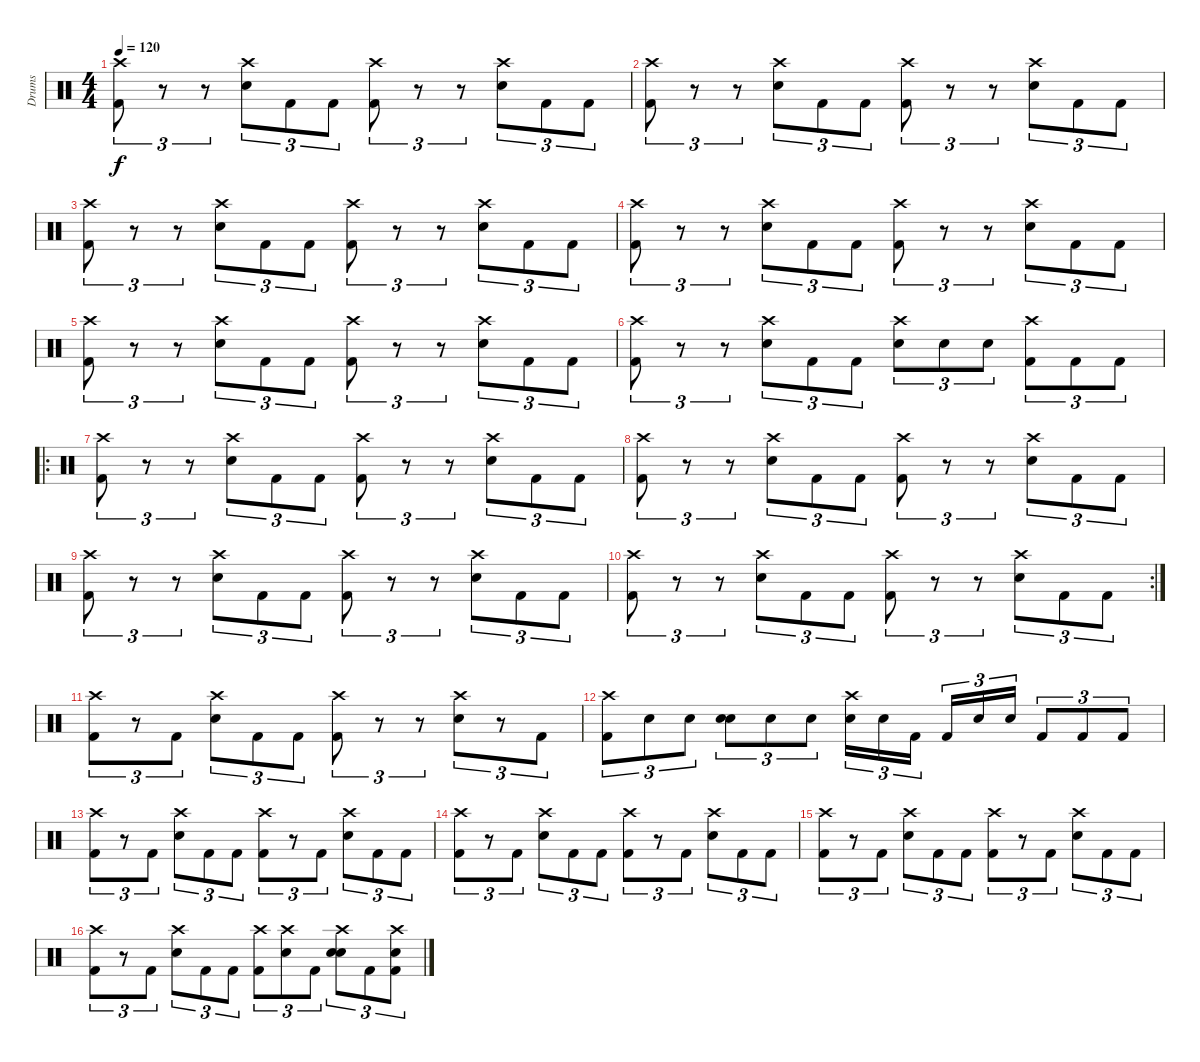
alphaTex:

\track ("Drums" "Drums") {instrument percussion}
\staff {score}
\articulation defaults
\ts (4 4)
\tempo 120
\clef neutral
\ks c
("Kick (hit) 2" "Crash high (hit)").8{tu (3 2) dy f} r.8{tu (3 2)} r.8{tu (3 2)} ("Electric Snare (hit)" "Crash high (hit)").8{tu (3 2)} "Kick (hit) 2".8{tu (3 2)} "Kick (hit) 2".8{tu (3 2)} ("Kick (hit) 2" "Crash high (hit)").8{tu (3 2)} r.8{tu (3 2)} r.8{tu (3 2)} ("Electric Snare (hit)" "Crash high (hit)").8{tu (3 2)} "Kick (hit) 2".8{tu (3 2)} "Kick (hit) 2".8{tu (3 2)} |
("Kick (hit) 2" "Crash high (hit)").8{tu (3 2)} r.8{tu (3 2)} r.8{tu (3 2)} ("Electric Snare (hit)" "Crash high (hit)").8{tu (3 2)} "Kick (hit) 2".8{tu (3 2)} "Kick (hit) 2".8{tu (3 2)} ("Kick (hit) 2" "Crash high (hit)").8{tu (3 2)} r.8{tu (3 2)} r.8{tu (3 2)} ("Electric Snare (hit)" "Crash high (hit)").8{tu (3 2)} "Kick (hit) 2".8{tu (3 2)} "Kick (hit) 2".8{tu (3 2)} |
("Kick (hit) 2" "Crash high (hit)").8{tu (3 2)} r.8{tu (3 2)} r.8{tu (3 2)} ("Electric Snare (hit)" "Crash high (hit)").8{tu (3 2)} "Kick (hit) 2".8{tu (3 2)} "Kick (hit) 2".8{tu (3 2)} ("Kick (hit) 2" "Crash high (hit)").8{tu (3 2)} r.8{tu (3 2)} r.8{tu (3 2)} ("Electric Snare (hit)" "Crash high (hit)").8{tu (3 2)} "Kick (hit) 2".8{tu (3 2)} "Kick (hit) 2".8{tu (3 2)} |
("Kick (hit) 2" "Crash high (hit)").8{tu (3 2)} r.8{tu (3 2)} r.8{tu (3 2)} ("Electric Snare (hit)" "Crash high (hit)").8{tu (3 2)} "Kick (hit) 2".8{tu (3 2)} "Kick (hit) 2".8{tu (3 2)} ("Kick (hit) 2" "Crash high (hit)").8{tu (3 2)} r.8{tu (3 2)} r.8{tu (3 2)} ("Electric Snare (hit)" "Crash high (hit)").8{tu (3 2)} "Kick (hit) 2".8{tu (3 2)} "Kick (hit) 2".8{tu (3 2)} |
("Kick (hit) 2" "Crash high (hit)").8{tu (3 2)} r.8{tu (3 2)} r.8{tu (3 2)} ("Electric Snare (hit)" "Crash high (hit)").8{tu (3 2)} "Kick (hit) 2".8{tu (3 2)} "Kick (hit) 2".8{tu (3 2)} ("Kick (hit) 2" "Crash high (hit)").8{tu (3 2)} r.8{tu (3 2)} r.8{tu (3 2)} ("Electric Snare (hit)" "Crash high (hit)").8{tu (3 2)} "Kick (hit) 2".8{tu (3 2)} "Kick (hit) 2".8{tu (3 2)} |
("Kick (hit) 2" "Crash high (hit)").8{tu (3 2)} r.8{tu (3 2)} r.8{tu (3 2)} ("Electric Snare (hit)" "Crash high (hit)").8{tu (3 2)} "Kick (hit) 2".8{tu (3 2)} "Kick (hit) 2".8{tu (3 2)} ("Electric Snare (hit)" "Crash high (hit)").8{tu (3 2)} "Electric Snare (hit)".8{tu (3 2)} "Electric Snare (hit)".8{tu (3 2)} ("Kick (hit) 2" "Crash high (hit)").8{tu (3 2)} "Kick (hit) 2".8{tu (3 2)} "Kick (hit) 2".8{tu (3 2)} |
\ro
("Kick (hit) 2" "Crash high (hit)").8{tu (3 2)} r.8{tu (3 2)} r.8{tu (3 2)} ("Electric Snare (hit)" "Crash high (hit)").8{tu (3 2)} "Kick (hit) 2".8{tu (3 2)} "Kick (hit) 2".8{tu (3 2)} ("Kick (hit) 2" "Crash high (hit)").8{tu (3 2)} r.8{tu (3 2)} r.8{tu (3 2)} ("Electric Snare (hit)" "Crash high (hit)").8{tu (3 2)} "Kick (hit) 2".8{tu (3 2)} "Kick (hit) 2".8{tu (3 2)} |
("Kick (hit) 2" "Crash high (hit)").8{tu (3 2)} r.8{tu (3 2)} r.8{tu (3 2)} ("Electric Snare (hit)" "Crash high (hit)").8{tu (3 2)} "Kick (hit) 2".8{tu (3 2)} "Kick (hit) 2".8{tu (3 2)} ("Kick (hit) 2" "Crash high (hit)").8{tu (3 2)} r.8{tu (3 2)} r.8{tu (3 2)} ("Electric Snare (hit)" "Crash high (hit)").8{tu (3 2)} "Kick (hit) 2".8{tu (3 2)} "Kick (hit) 2".8{tu (3 2)} |
("Kick (hit) 2" "Crash high (hit)").8{tu (3 2)} r.8{tu (3 2)} r.8{tu (3 2)} ("Electric Snare (hit)" "Crash high (hit)").8{tu (3 2)} "Kick (hit) 2".8{tu (3 2)} "Kick (hit) 2".8{tu (3 2)} ("Kick (hit) 2" "Crash high (hit)").8{tu (3 2)} r.8{tu (3 2)} r.8{tu (3 2)} ("Electric Snare (hit)" "Crash high (hit)").8{tu (3 2)} "Kick (hit) 2".8{tu (3 2)} "Kick (hit) 2".8{tu (3 2)} |
\rc 2
("Kick (hit) 2" "Crash high (hit)").8{tu (3 2)} r.8{tu (3 2)} r.8{tu (3 2)} ("Electric Snare (hit)" "Crash high (hit)").8{tu (3 2)} "Kick (hit) 2".8{tu (3 2)} "Kick (hit) 2".8{tu (3 2)} ("Kick (hit) 2" "Crash high (hit)").8{tu (3 2)} r.8{tu (3 2)} r.8{tu (3 2)} ("Electric Snare (hit)" "Crash high (hit)").8{tu (3 2)} "Kick (hit) 2".8{tu (3 2)} "Kick (hit) 2".8{tu (3 2)} |
("Kick (hit) 2" "Crash high (hit)").8{tu (3 2)} r.8{tu (3 2)} "Kick (hit) 2".8{tu (3 2)} ("Electric Snare (hit)" "Crash high (hit)").8{tu (3 2)} "Kick (hit) 2".8{tu (3 2)} "Kick (hit) 2".8{tu (3 2)} ("Kick (hit) 2" "Crash high (hit)").8{tu (3 2)} r.8{tu (3 2)} r.8{tu (3 2)} ("Electric Snare (hit)" "Crash high (hit)").8{tu (3 2)} r.8{tu (3 2)} "Kick (hit) 2".8{tu (3 2)} |
("Kick (hit) 2" "Crash high (hit)").8{tu (3 2)} "Electric Snare (hit)".8{tu (3 2)} "Electric Snare (hit)".8{tu (3 2)} ("Electric Snare (hit)" "Electric Snare (hit)").8{tu (3 2)} "Electric Snare (hit)".8{tu (3 2)} "Electric Snare (hit)".8{tu (3 2)} ("Crash high (hit)" "Electric Snare (hit)").16{tu (3 2)} "Electric Snare (hit)".16{tu (3 2)} "Kick (hit) 2".16{tu (3 2) beam splitsecondary} "Kick (hit) 2".16{tu (3 2)} "Electric Snare (hit)".16{tu (3 2)} "Electric Snare (hit)".16{tu (3 2)} "Kick (hit) 2".8{tu (3 2)} "Kick (hit) 2".8{tu (3 2)} "Kick (hit) 2".8{tu (3 2)} |
("Kick (hit) 2" "Crash high (hit)").8{tu (3 2)} r.8{tu (3 2)} "Kick (hit) 2".8{tu (3 2)} ("Electric Snare (hit)" "Crash high (hit)").8{tu (3 2)} "Kick (hit) 2".8{tu (3 2)} "Kick (hit) 2".8{tu (3 2)} ("Kick (hit) 2" "Crash high (hit)").8{tu (3 2)} r.8{tu (3 2)} "Kick (hit) 2".8{tu (3 2)} ("Electric Snare (hit)" "Crash high (hit)").8{tu (3 2)} "Kick (hit) 2".8{tu (3 2)} "Kick (hit) 2".8{tu (3 2)} |
("Kick (hit) 2" "Crash high (hit)").8{tu (3 2)} r.8{tu (3 2)} "Kick (hit) 2".8{tu (3 2)} ("Electric Snare (hit)" "Crash high (hit)").8{tu (3 2)} "Kick (hit) 2".8{tu (3 2)} "Kick (hit) 2".8{tu (3 2)} ("Kick (hit) 2" "Crash high (hit)").8{tu (3 2)} r.8{tu (3 2)} "Kick (hit) 2".8{tu (3 2)} ("Electric Snare (hit)" "Crash high (hit)").8{tu (3 2)} "Kick (hit) 2".8{tu (3 2)} "Kick (hit) 2".8{tu (3 2)} |
("Kick (hit) 2" "Crash high (hit)").8{tu (3 2)} r.8{tu (3 2)} "Kick (hit) 2".8{tu (3 2)} ("Electric Snare (hit)" "Crash high (hit)").8{tu (3 2)} "Kick (hit) 2".8{tu (3 2)} "Kick (hit) 2".8{tu (3 2)} ("Kick (hit) 2" "Crash high (hit)").8{tu (3 2)} r.8{tu (3 2)} "Kick (hit) 2".8{tu (3 2)} ("Electric Snare (hit)" "Crash high (hit)").8{tu (3 2)} "Kick (hit) 2".8{tu (3 2)} "Kick (hit) 2".8{tu (3 2)} |
("Kick (hit) 2" "Crash high (hit)").8{tu (3 2)} r.8{tu (3 2)} "Kick (hit) 2".8{tu (3 2)} ("Electric Snare (hit)" "Crash high (hit)").8{tu (3 2)} "Kick (hit) 2".8{tu (3 2)} "Kick (hit) 2".8{tu (3 2)} ("Kick (hit) 2" "Crash high (hit)").8{tu (3 2)} ("Electric Snare (hit)" "Crash high (hit)").8{tu (3 2)} "Kick (hit) 2".8{tu (3 2)} ("Electric Snare (hit)" "Electric Snare (hit)" "Crash high (hit)").8{tu (3 2)} "Kick (hit) 2".8{tu (3 2)} ("Kick (hit) 2" "Electric Snare (hit)" "Crash high (hit)").8{tu (3 2)}
